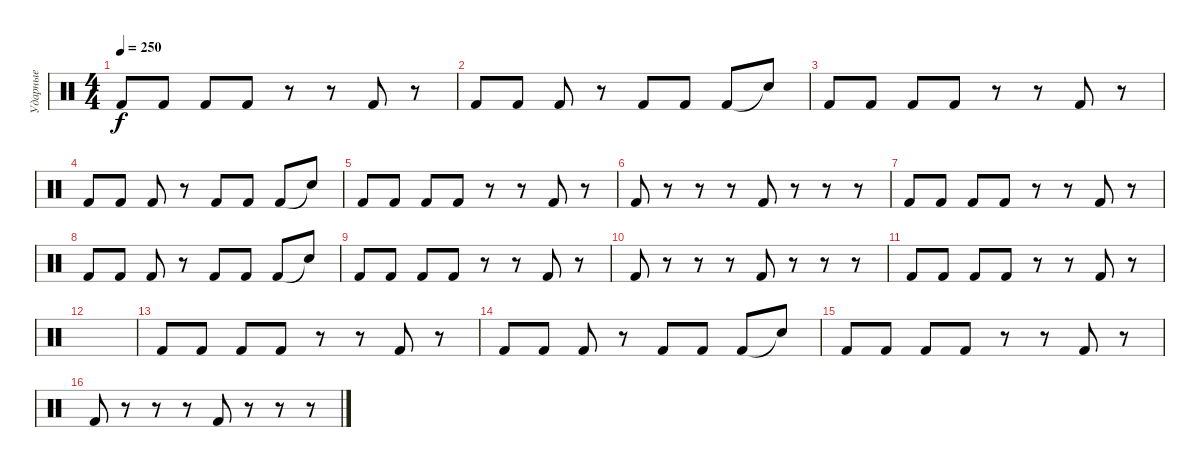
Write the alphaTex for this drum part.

\track ("Ударные" "Ударные") {instrument percussion}
\staff {score}
\articulation defaults
\ts (4 4)
\tempo 250
\clef neutral
\ks c "Kick (hit) 2".8{dy f} "Kick (hit) 2".8 "Kick (hit) 2".8 "Kick (hit) 2".8
r.8 r.8 "Kick (hit) 2".8 r.8 |
"Kick (hit) 2".8 "Kick (hit) 2".8 "Kick (hit) 2".8 r.8 "Kick (hit) 2".8 "Kick (hit) 2".8 "Kick (hit) 2".8 "Snare (hit)"{t}.8 |
"Kick (hit) 2".8 "Kick (hit) 2".8 "Kick (hit) 2".8 "Kick (hit) 2".8 r.8 r.8 "Kick (hit) 2".8 r.8 |
"Kick (hit) 2".8 "Kick (hit) 2".8 "Kick (hit) 2".8 r.8 "Kick (hit) 2".8 "Kick (hit) 2".8 "Kick (hit) 2".8 "Snare (hit)"{t}.8 |
"Kick (hit) 2".8 "Kick (hit) 2".8 "Kick (hit) 2".8 "Kick (hit) 2".8 r.8 r.8 "Kick (hit) 2".8 r.8 |
"Kick (hit) 2".8 r.8 r.8 r.8 "Kick (hit) 2".8 r.8 r.8 r.8 |
"Kick (hit) 2".8 "Kick (hit) 2".8 "Kick (hit) 2".8 "Kick (hit) 2".8 r.8 r.8 "Kick (hit) 2".8 r.8 |
"Kick (hit) 2".8 "Kick (hit) 2".8 "Kick (hit) 2".8 r.8 "Kick (hit) 2".8 "Kick (hit) 2".8 "Kick (hit) 2".8 "Snare (hit)"{t}.8 |
"Kick (hit) 2".8 "Kick (hit) 2".8 "Kick (hit) 2".8 "Kick (hit) 2".8 r.8 r.8 "Kick (hit) 2".8 r.8 |
"Kick (hit) 2".8 r.8 r.8 r.8 "Kick (hit) 2".8 r.8 r.8 r.8 |
"Kick (hit) 2".8 "Kick (hit) 2".8 "Kick (hit) 2".8 "Kick (hit) 2".8 r.8 r.8 "Kick (hit) 2".8 r.8 |
|
"Kick (hit) 2".8 "Kick (hit) 2".8 "Kick (hit) 2".8 "Kick (hit) 2".8 r.8 r.8 "Kick (hit) 2".8 r.8 |
"Kick (hit) 2".8 "Kick (hit) 2".8 "Kick (hit) 2".8 r.8 "Kick (hit) 2".8 "Kick (hit) 2".8 "Kick (hit) 2".8 "Snare (hit)"{t}.8 |
"Kick (hit) 2".8 "Kick (hit) 2".8 "Kick (hit) 2".8 "Kick (hit) 2".8 r.8 r.8 "Kick (hit) 2".8 r.8 |
"Kick (hit) 2".8 r.8 r.8 r.8 "Kick (hit) 2".8 r.8 r.8 r.8
